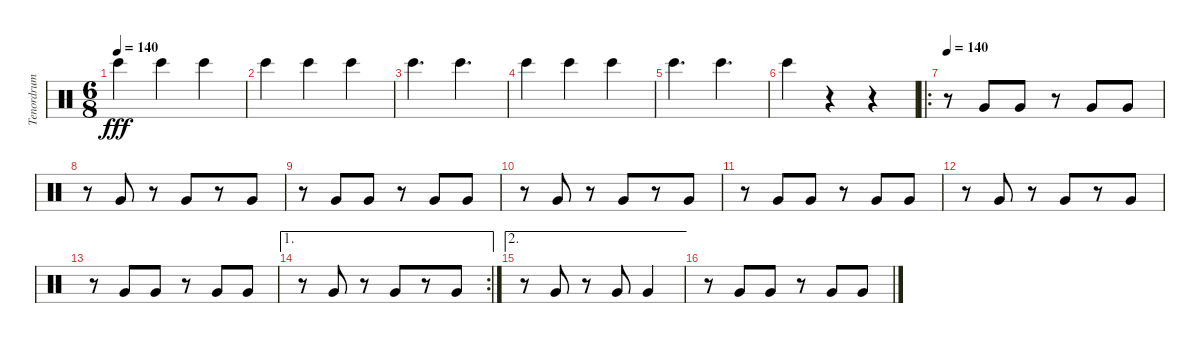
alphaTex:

\track ("Tenordrum" "Tenordrum") {instrument percussion}
\staff {score}
\articulation defaults
\ts (6 8)
\tempo 140
\clef neutral
\ks c "Bongo High (hit)".4{dy fff} "Bongo High (hit)".4 "Bongo High (hit)".4
|
"Bongo High (hit)".4 "Bongo High (hit)".4 "Bongo High (hit)".4 |
"Bongo High (hit)".4{d} "Bongo High (hit)".4{d} |
"Bongo High (hit)".4 "Bongo High (hit)".4 "Bongo High (hit)".4 |
"Bongo High (hit)".4{d} "Bongo High (hit)".4{d} |
"Bongo High (hit)".4 r.4 r.4 |
\ro
\tempo 140
r.8 "Very Low Tom (hit)".8 "Very Low Tom (hit)".8 r.8 "Very Low Tom (hit)".8 "Very Low Tom (hit)".8 |
r.8 "Very Low Tom (hit)".8 r.8 "Very Low Tom (hit)".8 r.8 "Very Low Tom (hit)".8 |
r.8 "Very Low Tom (hit)".8 "Very Low Tom (hit)".8 r.8 "Very Low Tom (hit)".8 "Very Low Tom (hit)".8 |
r.8 "Very Low Tom (hit)".8 r.8 "Very Low Tom (hit)".8 r.8 "Very Low Tom (hit)".8 |
r.8 "Very Low Tom (hit)".8 "Very Low Tom (hit)".8 r.8 "Very Low Tom (hit)".8 "Very Low Tom (hit)".8 |
r.8 "Very Low Tom (hit)".8 r.8 "Very Low Tom (hit)".8 r.8 "Very Low Tom (hit)".8 |
r.8 "Very Low Tom (hit)".8 "Very Low Tom (hit)".8 r.8 "Very Low Tom (hit)".8 "Very Low Tom (hit)".8 |
\ae 1
\rc 2
r.8 "Very Low Tom (hit)".8 r.8 "Very Low Tom (hit)".8 r.8 "Very Low Tom (hit)".8 |
\ae 2
r.8 "Very Low Tom (hit)".8 r.8 "Very Low Tom (hit)".8 "Very Low Tom (hit)".4 |
r.8 "Very Low Tom (hit)".8 "Very Low Tom (hit)".8 r.8 "Very Low Tom (hit)".8 "Very Low Tom (hit)".8
